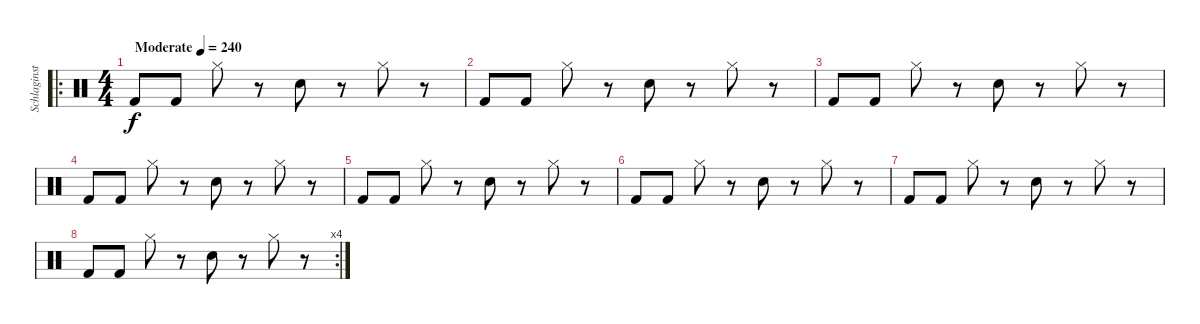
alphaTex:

\track ("Schlaginstrumente - Auswahl" "Schlaginst") {instrument percussion}
\staff {score}
\articulation defaults
\ro
\ts (4 4)
\tempo (240 "Moderate")
\clef neutral
\ks c "Kick (hit) 2".8{dy f} "Kick (hit) 2".8 "Hi-Hat (closed)".8
r.8 "Snare (hit) 2".8 r.8 "Hi-Hat (closed)".8 r.8 |
"Kick (hit) 2".8 "Kick (hit) 2".8 "Hi-Hat (closed)".8 r.8 "Snare (hit) 2".8 r.8 "Hi-Hat (closed)".8 r.8 |
"Kick (hit) 2".8 "Kick (hit) 2".8 "Hi-Hat (closed)".8 r.8 "Snare (hit) 2".8 r.8 "Hi-Hat (closed)".8 r.8 |
"Kick (hit) 2".8 "Kick (hit) 2".8 "Hi-Hat (closed)".8 r.8 "Snare (hit) 2".8 r.8 "Hi-Hat (closed)".8 r.8 |
"Kick (hit) 2".8 "Kick (hit) 2".8 "Hi-Hat (closed)".8 r.8 "Snare (hit) 2".8 r.8 "Hi-Hat (closed)".8 r.8 |
"Kick (hit) 2".8 "Kick (hit) 2".8 "Hi-Hat (closed)".8 r.8 "Snare (hit) 2".8 r.8 "Hi-Hat (closed)".8 r.8 |
"Kick (hit) 2".8 "Kick (hit) 2".8 "Hi-Hat (closed)".8 r.8 "Snare (hit) 2".8 r.8 "Hi-Hat (closed)".8 r.8 |
\rc 4 "Kick (hit) 2".8 "Kick (hit) 2".8 "Hi-Hat (closed)".8
r.8 "Snare (hit) 2".8 r.8 "Hi-Hat (closed)".8 r.8
